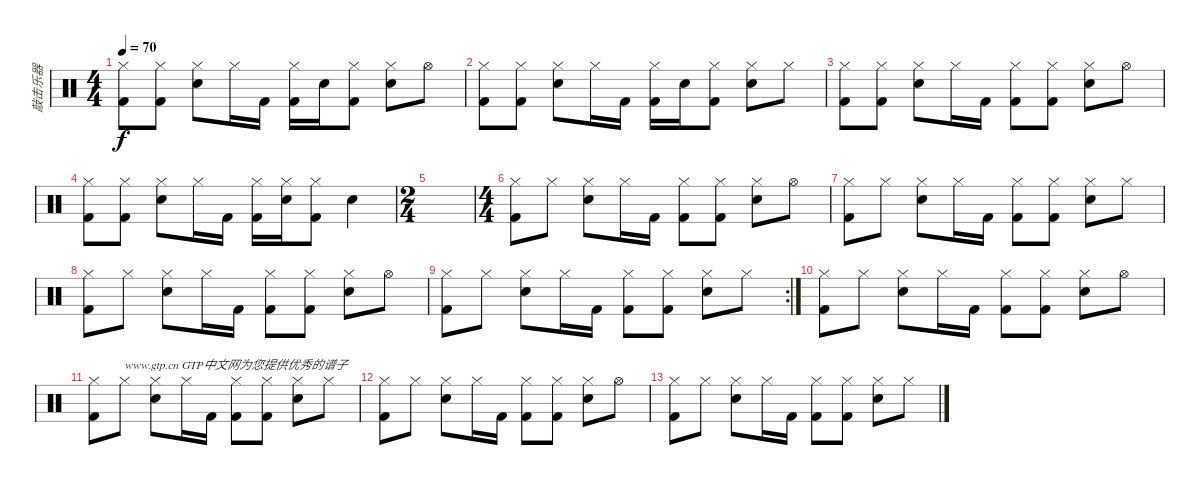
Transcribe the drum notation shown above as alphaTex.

\track ("敲击乐器" "敲击乐器") {instrument percussion}
\staff {score}
\articulation defaults
\ts (4 4)
\tempo 70
\clef neutral
\ks c
("Hi-Hat (closed)" "Kick (hit) 2").8{dy f} ("Hi-Hat (closed)" "Kick (hit) 2").8 ("Hi-Hat (closed)" "Electric Snare (hit)").8 "Hi-Hat (closed)".16 "Kick (hit) 2".16 ("Hi-Hat (closed)" "Kick (hit) 2").16 "Electric Snare (hit)".16 ("Hi-Hat (closed)" "Kick (hit) 2").8 ("Hi-Hat (closed)" "Electric Snare (hit)").8 "Hi-Hat (open)".8 |
("Hi-Hat (closed)" "Kick (hit) 2").8 ("Hi-Hat (closed)" "Kick (hit) 2").8 ("Hi-Hat (closed)" "Electric Snare (hit)").8 "Hi-Hat (closed)".16 "Kick (hit) 2".16 ("Hi-Hat (closed)" "Kick (hit) 2").16 "Electric Snare (hit)".16 ("Hi-Hat (closed)" "Kick (hit) 2").8 ("Hi-Hat (closed)" "Electric Snare (hit)").8 "Hi-Hat (closed)".8 |
("Hi-Hat (closed)" "Kick (hit) 2").8 ("Hi-Hat (closed)" "Kick (hit) 2").8 ("Hi-Hat (closed)" "Electric Snare (hit)").8 "Hi-Hat (closed)".16 "Kick (hit) 2".16 ("Hi-Hat (closed)" "Kick (hit) 2").8 ("Hi-Hat (closed)" "Kick (hit) 2").8 ("Hi-Hat (closed)" "Electric Snare (hit)").8 "Hi-Hat (open)".8 |
("Hi-Hat (closed)" "Kick (hit) 2").8 ("Hi-Hat (closed)" "Kick (hit) 2").8 ("Hi-Hat (closed)" "Electric Snare (hit)").8 "Hi-Hat (closed)".16 "Kick (hit) 2".16 ("Hi-Hat (closed)" "Kick (hit) 2").16 ("Hi-Hat (closed)" "Electric Snare (hit)").16 ("Hi-Hat (closed)" "Kick (hit) 2").8 "Electric Snare (hit)".4 |
\ts (2 4)
|
\ts (4 4)
("Hi-Hat (closed)" "Kick (hit) 2").8 "Hi-Hat (closed)".8 ("Hi-Hat (closed)" "Electric Snare (hit)").8 "Hi-Hat (closed)".16 "Kick (hit) 2".16 ("Hi-Hat (closed)" "Kick (hit) 2").8 ("Hi-Hat (closed)" "Kick (hit) 2").8 ("Hi-Hat (closed)" "Electric Snare (hit)").8 "Hi-Hat (open)".8 |
("Hi-Hat (closed)" "Kick (hit) 2").8 "Hi-Hat (closed)".8 ("Hi-Hat (closed)" "Electric Snare (hit)").8 "Hi-Hat (closed)".16 "Kick (hit) 2".16 ("Hi-Hat (closed)" "Kick (hit) 2").8 ("Hi-Hat (closed)" "Kick (hit) 2").8 ("Hi-Hat (closed)" "Electric Snare (hit)").8 "Hi-Hat (closed)".8 |
("Hi-Hat (closed)" "Kick (hit) 2").8 "Hi-Hat (closed)".8 ("Hi-Hat (closed)" "Electric Snare (hit)").8 "Hi-Hat (closed)".16 "Kick (hit) 2".16 ("Hi-Hat (closed)" "Kick (hit) 2").8 ("Hi-Hat (closed)" "Kick (hit) 2").8 ("Hi-Hat (closed)" "Electric Snare (hit)").8 "Hi-Hat (open)".8 |
\rc 2
("Hi-Hat (closed)" "Kick (hit) 2").8 "Hi-Hat (closed)".8 ("Hi-Hat (closed)" "Electric Snare (hit)").8 "Hi-Hat (closed)".16 "Kick (hit) 2".16 ("Hi-Hat (closed)" "Kick (hit) 2").8 ("Hi-Hat (closed)" "Kick (hit) 2").8 ("Hi-Hat (closed)" "Electric Snare (hit)").8 "Hi-Hat (closed)".8 |
("Hi-Hat (closed)" "Kick (hit) 2").8 "Hi-Hat (closed)".8 ("Hi-Hat (closed)" "Electric Snare (hit)").8 "Hi-Hat (closed)".16 "Kick (hit) 2".16 ("Hi-Hat (closed)" "Kick (hit) 2").8 ("Hi-Hat (closed)" "Kick (hit) 2").8 ("Hi-Hat (closed)" "Electric Snare (hit)").8 "Hi-Hat (open)".8 |
("Hi-Hat (closed)" "Kick (hit) 2").8 "Hi-Hat (closed)".8{txt "www.gtp.cn GTP中文网为您提供优秀的谱子"} ("Hi-Hat (closed)" "Electric Snare (hit)").8 "Hi-Hat (closed)".16 "Kick (hit) 2".16 ("Hi-Hat (closed)" "Kick (hit) 2").8 ("Hi-Hat (closed)" "Kick (hit) 2").8 ("Hi-Hat (closed)" "Electric Snare (hit)").8 "Hi-Hat (closed)".8 |
("Hi-Hat (closed)" "Kick (hit) 2").8 "Hi-Hat (closed)".8 ("Hi-Hat (closed)" "Electric Snare (hit)").8 "Hi-Hat (closed)".16 "Kick (hit) 2".16 ("Hi-Hat (closed)" "Kick (hit) 2").8 ("Hi-Hat (closed)" "Kick (hit) 2").8 ("Hi-Hat (closed)" "Electric Snare (hit)").8 "Hi-Hat (open)".8 |
("Hi-Hat (closed)" "Kick (hit) 2").8 "Hi-Hat (closed)".8 ("Hi-Hat (closed)" "Electric Snare (hit)").8 "Hi-Hat (closed)".16 "Kick (hit) 2".16 ("Hi-Hat (closed)" "Kick (hit) 2").8 ("Hi-Hat (closed)" "Kick (hit) 2").8 ("Hi-Hat (closed)" "Electric Snare (hit)").8 "Hi-Hat (closed)".8
